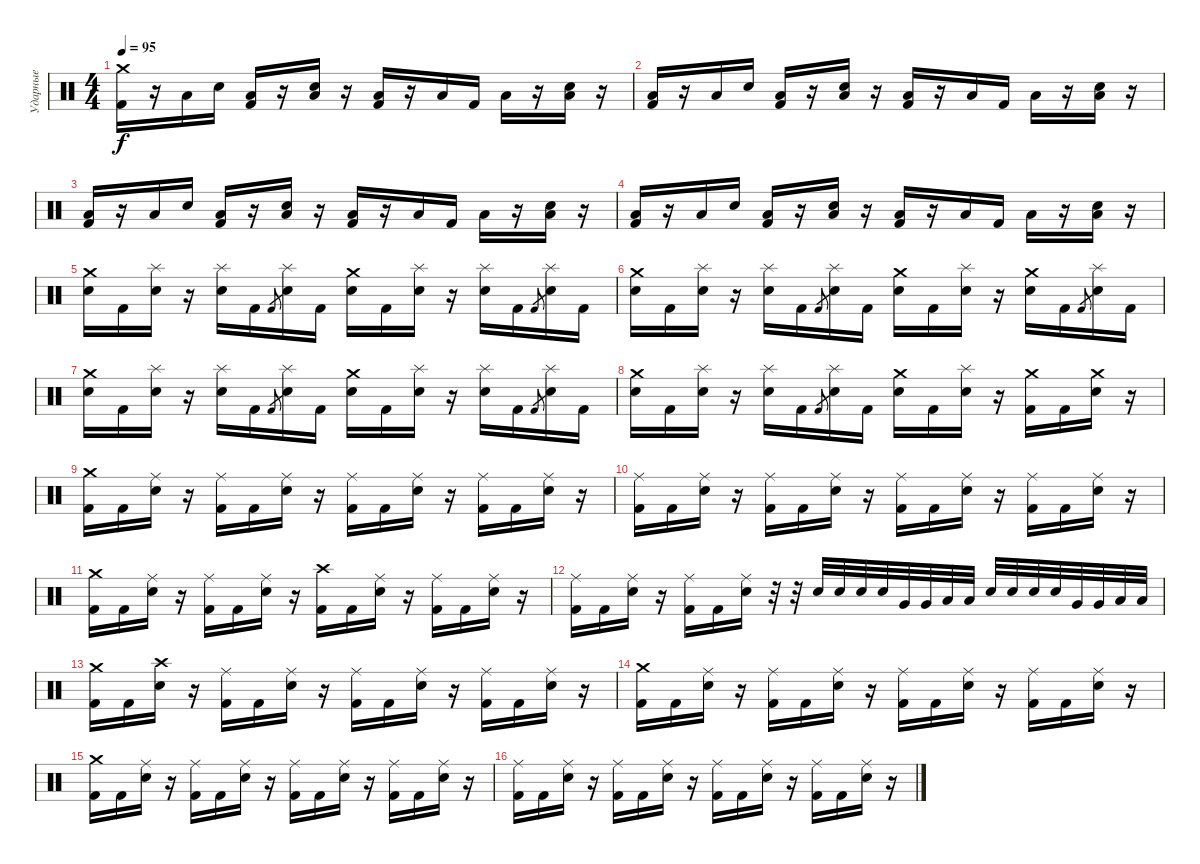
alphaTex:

\track ("Ударные" "Ударные") {instrument percussion}
\staff {score}
\articulation defaults
\ts (4 4)
\tempo 95
\clef neutral
\ks c
("Crash medium (hit)" "Kick (hit) 2").16{dy f} r.16 "Low Floor Tom (hit)".16 "Electric Snare (hit)".16 ("Low Floor Tom (hit)" "Kick (hit) 2").16 r.16 ("Low Floor Tom (hit)" "Electric Snare (hit)").16 r.16 ("Low Floor Tom (hit)" "Kick (hit) 2").16 r.16 "Low Floor Tom (hit)".16 "Kick (hit) 2".16 "Low Floor Tom (hit)".16 r.16 ("Low Floor Tom (hit)" "Electric Snare (hit)").16 r.16 |
("Low Floor Tom (hit)" "Kick (hit) 2").16 r.16 "Low Floor Tom (hit)".16 "Electric Snare (hit)".16 ("Low Floor Tom (hit)" "Kick (hit) 2").16 r.16 ("Low Floor Tom (hit)" "Electric Snare (hit)").16 r.16 ("Low Floor Tom (hit)" "Kick (hit) 2").16 r.16 "Low Floor Tom (hit)".16 "Kick (hit) 2".16 "Low Floor Tom (hit)".16 r.16 ("Low Floor Tom (hit)" "Electric Snare (hit)").16 r.16 |
("Low Floor Tom (hit)" "Kick (hit) 2").16 r.16 "Low Floor Tom (hit)".16 "Electric Snare (hit)".16 ("Low Floor Tom (hit)" "Kick (hit) 2").16 r.16 ("Low Floor Tom (hit)" "Electric Snare (hit)").16 r.16 ("Low Floor Tom (hit)" "Kick (hit) 2").16 r.16 "Low Floor Tom (hit)".16 "Kick (hit) 2".16 "Low Floor Tom (hit)".16 r.16 ("Low Floor Tom (hit)" "Electric Snare (hit)").16 r.16 |
("Low Floor Tom (hit)" "Kick (hit) 2").16 r.16 "Low Floor Tom (hit)".16 "Electric Snare (hit)".16 ("Low Floor Tom (hit)" "Kick (hit) 2").16 r.16 ("Low Floor Tom (hit)" "Electric Snare (hit)").16 r.16 ("Low Floor Tom (hit)" "Kick (hit) 2").16 r.16 "Low Floor Tom (hit)".16 "Kick (hit) 2".16 "Low Floor Tom (hit)".16 r.16 ("Low Floor Tom (hit)" "Electric Snare (hit)").16 r.16 |
("Crash medium (hit)" "Electric Snare (hit)").16 "Kick (hit) 2".16 ("Splash (hit)" "Electric Snare (hit)").16 r.16 ("Splash (hit)" "Electric Snare (hit)").16 "Kick (hit) 2".16 "Kick (hit) 2".8{gr} ("Splash (hit)" "Electric Snare (hit)").16 "Kick (hit) 2".16 ("Crash medium (hit)" "Electric Snare (hit)").16 "Kick (hit) 2".16 ("Splash (hit)" "Electric Snare (hit)").16 r.16 ("Splash (hit)" "Electric Snare (hit)").16 "Kick (hit) 2".16 "Kick (hit) 2".8{gr} ("Splash (hit)" "Electric Snare (hit)").16 "Kick (hit) 2".16 |
("Crash medium (hit)" "Electric Snare (hit)").16 "Kick (hit) 2".16 ("Splash (hit)" "Electric Snare (hit)").16 r.16 ("Splash (hit)" "Electric Snare (hit)").16 "Kick (hit) 2".16 "Kick (hit) 2".8{gr} ("Splash (hit)" "Electric Snare (hit)").16 "Kick (hit) 2".16 ("Crash medium (hit)" "Electric Snare (hit)").16 "Kick (hit) 2".16 ("Splash (hit)" "Electric Snare (hit)").16 r.16 ("Crash medium (hit)" "Electric Snare (hit)").16 "Kick (hit) 2".16 "Kick (hit) 2".8{gr} ("Splash (hit)" "Electric Snare (hit)").16 "Kick (hit) 2".16 |
("Crash medium (hit)" "Electric Snare (hit)").16 "Kick (hit) 2".16 ("Splash (hit)" "Electric Snare (hit)").16 r.16 ("Splash (hit)" "Electric Snare (hit)").16 "Kick (hit) 2".16 "Kick (hit) 2".8{gr} ("Splash (hit)" "Electric Snare (hit)").16 "Kick (hit) 2".16 ("Crash medium (hit)" "Electric Snare (hit)").16 "Kick (hit) 2".16 ("Splash (hit)" "Electric Snare (hit)").16 r.16 ("Splash (hit)" "Electric Snare (hit)").16 "Kick (hit) 2".16 "Kick (hit) 2".8{gr} ("Splash (hit)" "Electric Snare (hit)").16 "Kick (hit) 2".16 |
("Crash medium (hit)" "Electric Snare (hit)").16 "Kick (hit) 2".16 ("Splash (hit)" "Electric Snare (hit)").16 r.16 ("Splash (hit)" "Electric Snare (hit)").16 "Kick (hit) 2".16 "Kick (hit) 2".8{gr} ("Splash (hit)" "Electric Snare (hit)").16 "Kick (hit) 2".16 ("Crash medium (hit)" "Electric Snare (hit)").16 "Kick (hit) 2".16 ("Splash (hit)" "Electric Snare (hit)").16 r.16 ("Crash medium (hit)" "Kick (hit) 2").16 "Kick (hit) 2".16 ("Crash medium (hit)" "Electric Snare (hit)").16 r.16 |
("Crash medium (hit)" "Kick (hit) 2").16 "Kick (hit) 2".16 ("Ride (middle)" "Electric Snare (hit)").16 r.16 ("Ride (middle)" "Kick (hit) 2").16 "Kick (hit) 2".16 ("Ride (middle)" "Electric Snare (hit)").16 r.16 ("Ride (middle)" "Kick (hit) 2").16 "Kick (hit) 2".16 ("Ride (middle)" "Electric Snare (hit)").16 r.16 ("Ride (middle)" "Kick (hit) 2").16 "Kick (hit) 2".16 ("Ride (middle)" "Electric Snare (hit)").16 r.16 |
("Ride (middle)" "Kick (hit) 2").16 "Kick (hit) 2".16 ("Ride (middle)" "Electric Snare (hit)").16 r.16 ("Ride (middle)" "Kick (hit) 2").16 "Kick (hit) 2".16 ("Ride (middle)" "Electric Snare (hit)").16 r.16 ("Ride (middle)" "Kick (hit) 2").16 "Kick (hit) 2".16 ("Ride (middle)" "Electric Snare (hit)").16 r.16 ("Ride (middle)" "Kick (hit) 2").16 "Kick (hit) 2".16 ("Ride (middle)" "Electric Snare (hit)").16 r.16 |
("Crash medium (hit)" "Kick (hit) 2").16 "Kick (hit) 2".16 ("Ride (middle)" "Electric Snare (hit)").16 r.16 ("Ride (middle)" "Kick (hit) 2").16 "Kick (hit) 2".16 ("Ride (middle)" "Electric Snare (hit)").16 r.16 ("Crash high (hit)" "Kick (hit) 2").16 "Kick (hit) 2".16 ("Ride (middle)" "Electric Snare (hit)").16 r.16 ("Ride (middle)" "Kick (hit) 2").16 "Kick (hit) 2".16 ("Ride (middle)" "Electric Snare (hit)").16 r.16 |
("Ride (middle)" "Kick (hit) 2").16 "Kick (hit) 2".16 ("Ride (middle)" "Electric Snare (hit)").16 r.16 ("Ride (middle)" "Kick (hit) 2").16 "Kick (hit) 2".16 ("Ride (middle)" "Electric Snare (hit)").16 r.32 r.32 "Electric Snare (hit)".32 "Electric Snare (hit)".32 "Electric Snare (hit)".32 "Electric Snare (hit)".32 "Very Low Tom (hit)".32 "Very Low Tom (hit)".32 "Low Tom (hit)".32 "Low Tom (hit)".32 "Electric Snare (hit)".32 "Electric Snare (hit)".32 "Electric Snare (hit)".32 "Electric Snare (hit)".32 "Very Low Tom (hit)".32 "Very Low Tom (hit)".32 "Low Tom (hit)".32 "Low Tom (hit)".32 |
("Crash medium (hit)" "Kick (hit) 2").16 "Kick (hit) 2".16 ("Crash high (hit)" "Electric Snare (hit)").16 r.16 ("Ride (middle)" "Kick (hit) 2").16 "Kick (hit) 2".16 ("Ride (middle)" "Electric Snare (hit)").16 r.16 ("Ride (middle)" "Kick (hit) 2").16 "Kick (hit) 2".16 ("Ride (middle)" "Electric Snare (hit)").16 r.16 ("Ride (middle)" "Kick (hit) 2").16 "Kick (hit) 2".16 ("Ride (middle)" "Electric Snare (hit)").16 r.16 |
("Crash medium (hit)" "Kick (hit) 2").16 "Kick (hit) 2".16 ("Ride (middle)" "Electric Snare (hit)").16 r.16 ("Ride (middle)" "Kick (hit) 2").16 "Kick (hit) 2".16 ("Ride (middle)" "Electric Snare (hit)").16 r.16 ("Ride (middle)" "Kick (hit) 2").16 "Kick (hit) 2".16 ("Ride (middle)" "Electric Snare (hit)").16 r.16 ("Ride (middle)" "Kick (hit) 2").16 "Kick (hit) 2".16 ("Ride (middle)" "Electric Snare (hit)").16 r.16 |
("Crash medium (hit)" "Kick (hit) 2").16 "Kick (hit) 2".16 ("Ride (middle)" "Electric Snare (hit)").16 r.16 ("Ride (middle)" "Kick (hit) 2").16 "Kick (hit) 2".16 ("Ride (middle)" "Electric Snare (hit)").16 r.16 ("Ride (middle)" "Kick (hit) 2").16 "Kick (hit) 2".16 ("Ride (middle)" "Electric Snare (hit)").16 r.16 ("Ride (middle)" "Kick (hit) 2").16 "Kick (hit) 2".16 ("Ride (middle)" "Electric Snare (hit)").16 r.16 |
("Ride (middle)" "Kick (hit) 2").16 "Kick (hit) 2".16 ("Ride (middle)" "Electric Snare (hit)").16 r.16 ("Ride (middle)" "Kick (hit) 2").16 "Kick (hit) 2".16 ("Ride (middle)" "Electric Snare (hit)").16 r.16 ("Ride (middle)" "Kick (hit) 2").16 "Kick (hit) 2".16 ("Ride (middle)" "Electric Snare (hit)").16 r.16 ("Ride (middle)" "Kick (hit) 2").16 "Kick (hit) 2".16 ("Ride (middle)" "Electric Snare (hit)").16 r.16
